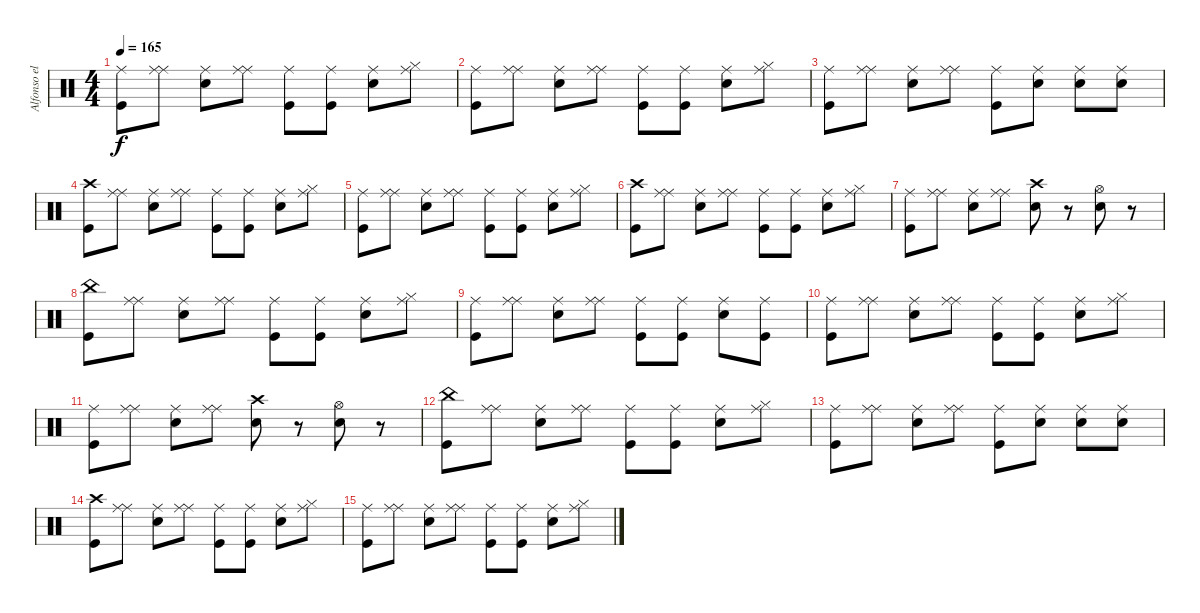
\track ("Alfonso el flaco Andre" "Alfonso el") {instrument percussion}
\staff {score}
\articulation defaults
\ts (4 4)
\tempo 165
\clef neutral
\ks c
("Ride (middle)" "Kick (hit)").8{dy f} ("Ride (middle)" "Ride (middle)").8 ("Ride (middle)" "Snare (hit) 2").8 ("Ride (middle)" "Ride (middle)").8 ("Ride (middle)" "Kick (hit)").8 ("Ride (middle)" "Kick (hit)").8 ("Ride (middle)" "Snare (hit) 2").8 ("Ride (middle)" "Hi-Hat (closed)").8 |
("Ride (middle)" "Kick (hit)").8 ("Ride (middle)" "Ride (middle)").8 ("Ride (middle)" "Snare (hit) 2").8 ("Ride (middle)" "Ride (middle)").8 ("Ride (middle)" "Kick (hit)").8 ("Ride (middle)" "Kick (hit)").8 ("Ride (middle)" "Snare (hit) 2").8 ("Ride (middle)" "Hi-Hat (closed)").8 |
("Ride (middle)" "Kick (hit)").8 ("Ride (middle)" "Ride (middle)").8 ("Ride (middle)" "Snare (hit) 2").8 ("Ride (middle)" "Ride (middle)").8 ("Ride (middle)" "Kick (hit)").8 ("Ride (middle)" "Snare (hit) 2").8 ("Ride (middle)" "Snare (hit) 2").8 ("Ride (middle)" "Snare (hit) 2").8 |
("Crash high (hit)" "Kick (hit)").8 ("Ride (middle)" "Ride (middle)").8 ("Ride (middle)" "Snare (hit) 2").8 ("Ride (middle)" "Ride (middle)").8 ("Ride (middle)" "Kick (hit)").8 ("Ride (middle)" "Kick (hit)").8 ("Ride (middle)" "Snare (hit) 2").8 ("Ride (middle)" "Hi-Hat (closed)").8 |
("Ride (middle)" "Kick (hit)").8 ("Ride (middle)" "Ride (middle)").8 ("Ride (middle)" "Snare (hit) 2").8 ("Ride (middle)" "Ride (middle)").8 ("Ride (middle)" "Kick (hit)").8 ("Ride (middle)" "Kick (hit)").8 ("Ride (middle)" "Snare (hit) 2").8 ("Ride (middle)" "Hi-Hat (closed)").8 |
("Crash high (hit)" "Kick (hit)").8 ("Ride (middle)" "Ride (middle)").8 ("Ride (middle)" "Snare (hit) 2").8 ("Ride (middle)" "Ride (middle)").8 ("Ride (middle)" "Kick (hit)").8 ("Ride (middle)" "Kick (hit)").8 ("Ride (middle)" "Snare (hit) 2").8 ("Ride (middle)" "Hi-Hat (closed)").8 |
("Ride (middle)" "Kick (hit)").8 ("Ride (middle)" "Ride (middle)").8 ("Ride (middle)" "Snare (hit) 2").8 ("Ride (middle)" "Ride (middle)").8 ("Crash high (hit)" "Snare (hit) 2").8 r.8 ("Hi-Hat (open)" "Snare (hit) 2").8 r.8 |
("China (hit)" "Kick (hit)").8 ("Ride (middle)" "Ride (middle)").8 ("Ride (middle)" "Snare (hit) 2").8 ("Ride (middle)" "Ride (middle)").8 ("Ride (middle)" "Kick (hit)").8 ("Ride (middle)" "Kick (hit)").8 ("Ride (middle)" "Snare (hit) 2").8 ("Ride (middle)" "Hi-Hat (closed)").8 |
("Ride (middle)" "Kick (hit)").8 ("Ride (middle)" "Ride (middle)").8 ("Ride (middle)" "Snare (hit) 2").8 ("Ride (middle)" "Ride (middle)").8 ("Ride (middle)" "Kick (hit)").8 ("Ride (middle)" "Kick (hit)").8 ("Ride (middle)" "Snare (hit) 2").8 ("Ride (middle)" "Kick (hit)").8 |
("Ride (middle)" "Kick (hit)").8 ("Ride (middle)" "Ride (middle)").8 ("Ride (middle)" "Snare (hit) 2").8 ("Ride (middle)" "Ride (middle)").8 ("Ride (middle)" "Kick (hit)").8 ("Ride (middle)" "Kick (hit)").8 ("Ride (middle)" "Snare (hit) 2").8 ("Ride (middle)" "Hi-Hat (closed)").8 |
("Ride (middle)" "Kick (hit)").8 ("Ride (middle)" "Ride (middle)").8 ("Ride (middle)" "Snare (hit) 2").8 ("Ride (middle)" "Ride (middle)").8 ("Crash high (hit)" "Snare (hit) 2").8 r.8 ("Hi-Hat (open)" "Snare (hit) 2").8 r.8 |
("China (hit)" "Kick (hit)").8 ("Ride (middle)" "Ride (middle)").8 ("Ride (middle)" "Snare (hit) 2").8 ("Ride (middle)" "Ride (middle)").8 ("Ride (middle)" "Kick (hit)").8 ("Ride (middle)" "Kick (hit)").8 ("Ride (middle)" "Snare (hit) 2").8 ("Ride (middle)" "Hi-Hat (closed)").8 |
("Ride (middle)" "Kick (hit)").8 ("Ride (middle)" "Ride (middle)").8 ("Ride (middle)" "Snare (hit) 2").8 ("Ride (middle)" "Ride (middle)").8 ("Ride (middle)" "Kick (hit)").8 ("Ride (middle)" "Snare (hit) 2").8 ("Ride (middle)" "Snare (hit) 2").8 ("Ride (middle)" "Snare (hit) 2").8 |
("Crash high (hit)" "Kick (hit)").8 ("Ride (middle)" "Ride (middle)").8 ("Ride (middle)" "Snare (hit) 2").8 ("Ride (middle)" "Ride (middle)").8 ("Ride (middle)" "Kick (hit)").8 ("Ride (middle)" "Kick (hit)").8 ("Ride (middle)" "Snare (hit) 2").8 ("Ride (middle)" "Hi-Hat (closed)").8 |
("Ride (middle)" "Kick (hit)").8 ("Ride (middle)" "Ride (middle)").8 ("Ride (middle)" "Snare (hit) 2").8 ("Ride (middle)" "Ride (middle)").8 ("Ride (middle)" "Kick (hit)").8 ("Ride (middle)" "Kick (hit)").8 ("Ride (middle)" "Snare (hit) 2").8 ("Ride (middle)" "Hi-Hat (closed)").8
